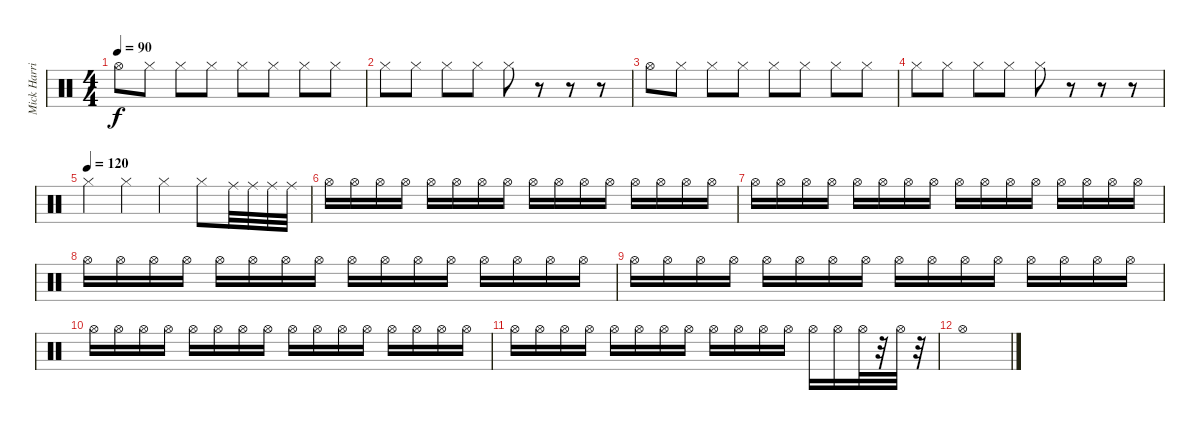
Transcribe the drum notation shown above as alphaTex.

\track ("Mick Harris" "Mick Harri") {instrument percussion}
\staff {score}
\articulation defaults
\ts (4 4)
\tempo 90
\clef neutral
\ks c "Hi-Hat (open)".8{dy f} "Hi-Hat (closed)".8 "Hi-Hat (closed)".8 "Hi-Hat (closed)".8 "Hi-Hat (closed)".8 "Hi-Hat (closed)".8 "Hi-Hat (closed)".8 "Hi-Hat (closed)".8
|
"Hi-Hat (closed)".8 "Hi-Hat (closed)".8 "Hi-Hat (closed)".8 "Hi-Hat (closed)".8 "Hi-Hat (closed)".8 r.8 r.8 r.8 |
"Hi-Hat (open)".8 "Hi-Hat (closed)".8 "Hi-Hat (closed)".8 "Hi-Hat (closed)".8 "Hi-Hat (closed)".8 "Hi-Hat (closed)".8 "Hi-Hat (closed)".8 "Hi-Hat (closed)".8 |
"Hi-Hat (closed)".8 "Hi-Hat (closed)".8 "Hi-Hat (closed)".8 "Hi-Hat (closed)".8 "Hi-Hat (closed)".8 r.8 r.8 r.8 |
\tempo (120)
"Hi-Hat (closed)".4 "Hi-Hat (closed)".4 "Hi-Hat (closed)".4 "Hi-Hat (closed)".8 "Ride (middle)".32 "Ride (middle)".32 "Ride (middle)".32 "Ride (middle)".32 |
"Hi-Hat (open)".16 "Hi-Hat (open)".16 "Hi-Hat (open)".16 "Hi-Hat (open)".16 "Hi-Hat (open)".16 "Hi-Hat (open)".16 "Hi-Hat (open)".16 "Hi-Hat (open)".16 "Hi-Hat (open)".16 "Hi-Hat (open)".16 "Hi-Hat (open)".16 "Hi-Hat (open)".16 "Hi-Hat (open)".16 "Hi-Hat (open)".16 "Hi-Hat (open)".16 "Hi-Hat (open)".16 |
"Hi-Hat (open)".16 "Hi-Hat (open)".16 "Hi-Hat (open)".16 "Hi-Hat (open)".16 "Hi-Hat (open)".16 "Hi-Hat (open)".16 "Hi-Hat (open)".16 "Hi-Hat (open)".16 "Hi-Hat (open)".16 "Hi-Hat (open)".16 "Hi-Hat (open)".16 "Hi-Hat (open)".16 "Hi-Hat (open)".16 "Hi-Hat (open)".16 "Hi-Hat (open)".16 "Hi-Hat (open)".16 |
"Hi-Hat (open)".16 "Hi-Hat (open)".16 "Hi-Hat (open)".16 "Hi-Hat (open)".16 "Hi-Hat (open)".16 "Hi-Hat (open)".16 "Hi-Hat (open)".16 "Hi-Hat (open)".16 "Hi-Hat (open)".16 "Hi-Hat (open)".16 "Hi-Hat (open)".16 "Hi-Hat (open)".16 "Hi-Hat (open)".16 "Hi-Hat (open)".16 "Hi-Hat (open)".16 "Hi-Hat (open)".16 |
"Hi-Hat (open)".16 "Hi-Hat (open)".16 "Hi-Hat (open)".16 "Hi-Hat (open)".16 "Hi-Hat (open)".16 "Hi-Hat (open)".16 "Hi-Hat (open)".16 "Hi-Hat (open)".16 "Hi-Hat (open)".16 "Hi-Hat (open)".16 "Hi-Hat (open)".16 "Hi-Hat (open)".16 "Hi-Hat (open)".16 "Hi-Hat (open)".16 "Hi-Hat (open)".16 "Hi-Hat (open)".16 |
"Hi-Hat (open)".16 "Hi-Hat (open)".16 "Hi-Hat (open)".16 "Hi-Hat (open)".16 "Hi-Hat (open)".16 "Hi-Hat (open)".16 "Hi-Hat (open)".16 "Hi-Hat (open)".16 "Hi-Hat (open)".16 "Hi-Hat (open)".16 "Hi-Hat (open)".16 "Hi-Hat (open)".16 "Hi-Hat (open)".16 "Hi-Hat (open)".16 "Hi-Hat (open)".16 "Hi-Hat (open)".16 |
"Hi-Hat (open)".16 "Hi-Hat (open)".16 "Hi-Hat (open)".16 "Hi-Hat (open)".16 "Hi-Hat (open)".16 "Hi-Hat (open)".16 "Hi-Hat (open)".16 "Hi-Hat (open)".16 "Hi-Hat (open)".16 "Hi-Hat (open)".16 "Hi-Hat (open)".16 "Hi-Hat (open)".16 "Hi-Hat (open)".16 "Hi-Hat (open)".16 "Hi-Hat (open)".32 r.32 "Hi-Hat (open)".32 r.32 |
"Hi-Hat (open)".1
